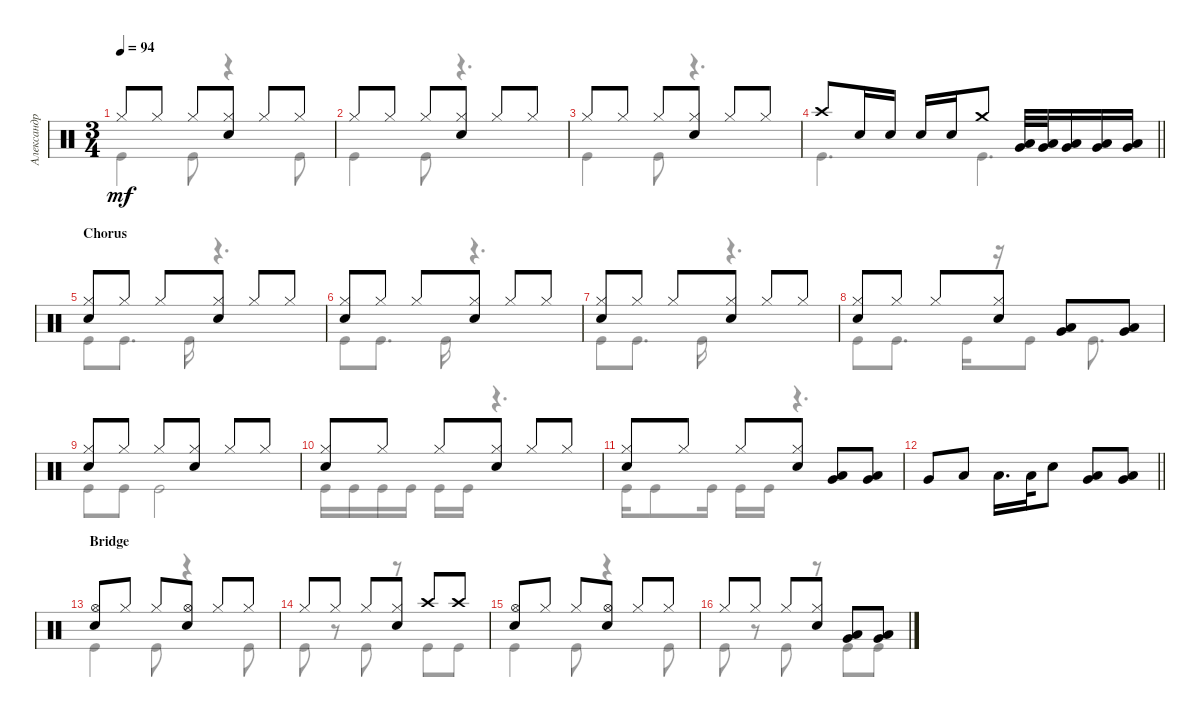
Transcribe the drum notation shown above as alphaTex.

\track ("Александр Манякин" "Александр ") {instrument percussion}
\staff {score}
\articulation defaults
\voice
\ts (3 4)
\tempo 94
\clef neutral
\ks c "Hi-Hat (closed)".8{dy mf} "Hi-Hat (closed)".8 "Hi-Hat (closed)".8
("Hi-Hat (closed)" "Snare (hit) 2").8 "Hi-Hat (closed)".8 "Hi-Hat (closed)".8 |
"Hi-Hat (closed)".8 "Hi-Hat (closed)".8 "Hi-Hat (closed)".8 ("Hi-Hat (closed)" "Snare (hit) 2").8 "Hi-Hat (closed)".8 "Hi-Hat (closed)".8 |
"Hi-Hat (closed)".8 "Hi-Hat (closed)".8 "Hi-Hat (closed)".8 ("Hi-Hat (closed)" "Snare (hit) 2").8 "Hi-Hat (closed)".8 "Hi-Hat (closed)".8 |
\barLineRight lightlight "Crash high (hit)".8 "Snare (hit) 2".16 "Snare (hit) 2".16 "Snare (hit) 2".16 "Snare (hit) 2".16 "Crash medium (hit)".8
("Low Tom (hit)" "Very Low Tom (hit)").32 ("Low Tom (hit)" "Very Low Tom (hit)").32 ("Low Tom (hit)" "Very Low Tom (hit)").16 ("Low Tom (hit)" "Very Low Tom (hit)").16 ("Low Tom (hit)" "Very Low Tom (hit)").16 |
\section ("" "Chorus")
("Hi-Hat (closed)" "Snare (hit) 2").8 "Hi-Hat (closed)".8 "Hi-Hat (closed)".8 ("Hi-Hat (closed)" "Snare (hit) 2").8 "Hi-Hat (closed)".8 "Hi-Hat (closed)".8 |
("Hi-Hat (closed)" "Snare (hit) 2").8 "Hi-Hat (closed)".8 "Hi-Hat (closed)".8 ("Hi-Hat (closed)" "Snare (hit) 2").8 "Hi-Hat (closed)".8 "Hi-Hat (closed)".8 |
("Hi-Hat (closed)" "Snare (hit) 2").8 "Hi-Hat (closed)".8 "Hi-Hat (closed)".8 ("Hi-Hat (closed)" "Snare (hit) 2").8 "Hi-Hat (closed)".8 "Hi-Hat (closed)".8 |
("Snare (hit) 2" "Hi-Hat (closed)").8 "Hi-Hat (closed)".8 "Hi-Hat (closed)".8 ("Hi-Hat (closed)" "Snare (hit) 2").8 ("Very Low Tom (hit)" "Low Tom (hit)").8 ("Very Low Tom (hit)" "Low Tom (hit)").8 |
("Hi-Hat (closed)" "Snare (hit) 2").8 "Hi-Hat (closed)".8 "Hi-Hat (closed)".8 ("Hi-Hat (closed)" "Snare (hit) 2").8 "Hi-Hat (closed)".8 "Hi-Hat (closed)".8 |
("Hi-Hat (closed)" "Snare (hit) 2").8 "Hi-Hat (closed)".8 "Hi-Hat (closed)".8 ("Hi-Hat (closed)" "Snare (hit) 2").8 "Hi-Hat (closed)".8 "Hi-Hat (closed)".8 |
("Hi-Hat (closed)" "Snare (hit) 2").8 "Hi-Hat (closed)".8 "Hi-Hat (closed)".8 ("Hi-Hat (closed)" "Snare (hit) 2").8 ("Low Tom (hit)" "Very Low Tom (hit)").8 ("Low Tom (hit)" "Very Low Tom (hit)").8 |
\barLineRight lightlight "Very Low Tom (hit)".8 "Low Tom (hit)".8 "Low Tom (hit)".16{d} "Low Tom (hit)".32 "Snare (hit) 2".8
("Very Low Tom (hit)" "Low Tom (hit)").8 ("Very Low Tom (hit)" "Low Tom (hit)").8 |
\section ("" "Bridge")
("Snare (hit) 2" "Hi-Hat (open)").8 "Hi-Hat (closed)".8 "Hi-Hat (closed)".8 ("Snare (hit) 2" "Hi-Hat (open)").8 "Hi-Hat (closed)".8 "Hi-Hat (closed)".8 |
"Hi-Hat (closed)".8 "Hi-Hat (closed)".8 "Hi-Hat (closed)".8 ("Hi-Hat (closed)" "Snare (hit) 2").8 "Crash high (hit)".8 "Crash high (hit)".8 |
("Snare (hit) 2" "Hi-Hat (open)").8 "Hi-Hat (closed)".8 "Hi-Hat (closed)".8 ("Snare (hit) 2" "Hi-Hat (open)").8 "Hi-Hat (closed)".8 "Hi-Hat (closed)".8 |
"Hi-Hat (closed)".8 "Hi-Hat (closed)".8 "Hi-Hat (closed)".8 ("Hi-Hat (closed)" "Snare (hit) 2").8 ("Low Tom (hit)" "Very Low Tom (hit)").8 ("Very Low Tom (hit)" "Low Tom (hit)").8
\voice
\clef neutral
\ottava regular
\simile none
\ks c "Kick (hit)".4{dy mf} "Kick (hit)".8
r.4 "Kick (hit)".8 |
"Kick (hit)".4 "Kick (hit)".8 r.4{d} |
"Kick (hit)".4 "Kick (hit)".8 r.4{d} |
\barLineRight lightlight "Kick (hit)".4{d} "Kick (hit)".4{d}
|
"Kick (hit)".8 "Kick (hit)".8{d} "Kick (hit)".16 r.4{d} |
"Kick (hit)".8 "Kick (hit)".8{d} "Kick (hit)".16 r.4{d} |
"Kick (hit)".8 "Kick (hit)".8{d} "Kick (hit)".16 r.4{d} |
"Kick (hit)".8 "Kick (hit)".8{d} "Kick (hit)".16 r.16 "Kick (hit)".8 "Kick (hit)".8{d} |
"Kick (hit)".8 "Kick (hit)".8 "Kick (hit)".2 |
"Kick (hit)".16 "Kick (hit)".16 "Kick (hit)".16 "Kick (hit)".16 "Kick (hit)".16 "Kick (hit)".16 r.4{d} |
"Kick (hit)".16 "Kick (hit)".8 "Kick (hit)".16 "Kick (hit)".16 "Kick (hit)".16 r.4{d} |
\barLineRight lightlight
|
"Kick (hit)".4 "Kick (hit)".8 r.4 "Kick (hit)".8 |
"Kick (hit)".8 r.8 "Kick (hit)".8 r.8 "Kick (hit)".8 "Kick (hit)".8 |
"Kick (hit)".4 "Kick (hit)".8 r.4 "Kick (hit)".8 |
"Kick (hit)".8 r.8 "Kick (hit)".8 r.8 "Kick (hit)".8 "Kick (hit)".8
